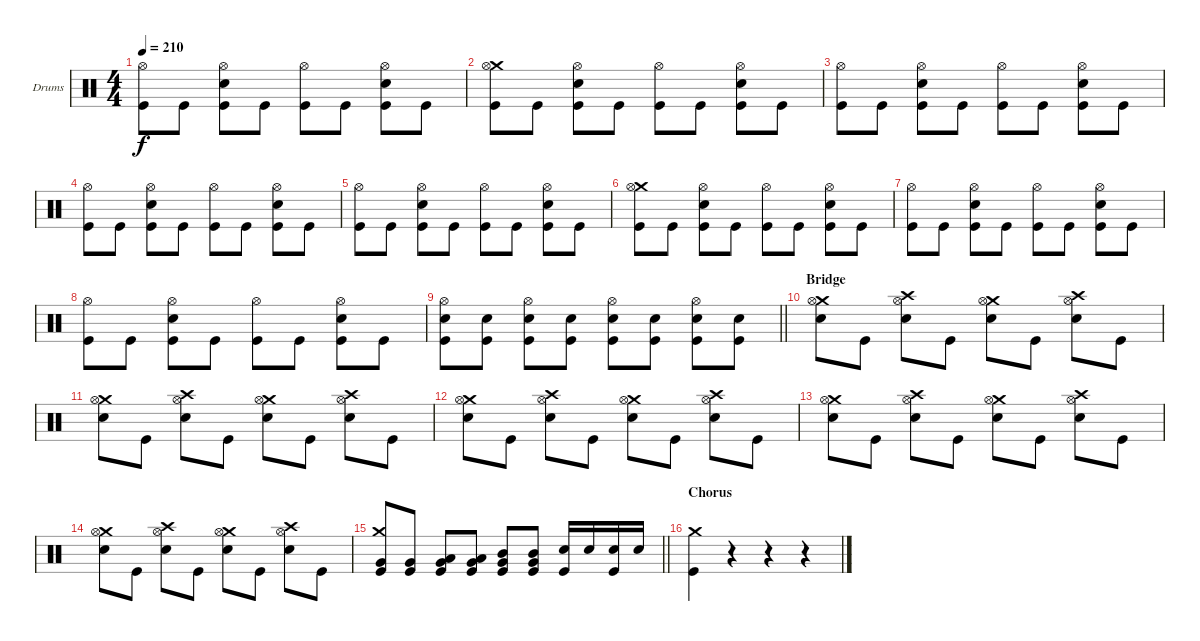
\bracketExtendMode groupsimilarinstruments
\firstSystemTrackNameOrientation horizontal
\otherSystemsTrackNameOrientation horizontal
\track ("Drumkit" "Drums") {instrument percussion}
\staff {score}
\articulation defaults
\ts (4 4)
\tempo 210
\clef neutral
\ks c
("Hi-Hat (open)" "Kick (hit)").8{dy f} "Kick (hit)".8 ("Hi-Hat (open)" "Snare (hit) 2" "Kick (hit)").8 "Kick (hit)".8 ("Hi-Hat (open)" "Kick (hit)").8 "Kick (hit)".8 ("Hi-Hat (open)" "Snare (hit) 2" "Kick (hit)").8 "Kick (hit)".8 |
("Crash medium (hit)" "Hi-Hat (open)" "Kick (hit)").8 "Kick (hit)".8 ("Hi-Hat (open)" "Snare (hit) 2" "Kick (hit)").8 "Kick (hit)".8 ("Hi-Hat (open)" "Kick (hit)").8 "Kick (hit)".8 ("Hi-Hat (open)" "Snare (hit) 2" "Kick (hit)").8 "Kick (hit)".8 |
("Hi-Hat (open)" "Kick (hit)").8 "Kick (hit)".8 ("Hi-Hat (open)" "Snare (hit) 2" "Kick (hit)").8 "Kick (hit)".8 ("Hi-Hat (open)" "Kick (hit)").8 "Kick (hit)".8 ("Hi-Hat (open)" "Snare (hit) 2" "Kick (hit)").8 "Kick (hit)".8 |
("Hi-Hat (open)" "Kick (hit)").8 "Kick (hit)".8 ("Hi-Hat (open)" "Snare (hit) 2" "Kick (hit)").8 "Kick (hit)".8 ("Hi-Hat (open)" "Kick (hit)").8 "Kick (hit)".8 ("Hi-Hat (open)" "Snare (hit) 2" "Kick (hit)").8 "Kick (hit)".8 |
("Hi-Hat (open)" "Kick (hit)").8 "Kick (hit)".8 ("Hi-Hat (open)" "Snare (hit) 2" "Kick (hit)").8 "Kick (hit)".8 ("Hi-Hat (open)" "Kick (hit)").8 "Kick (hit)".8 ("Hi-Hat (open)" "Snare (hit) 2" "Kick (hit)").8 "Kick (hit)".8 |
("Crash medium (hit)" "Hi-Hat (open)" "Kick (hit)").8 "Kick (hit)".8 ("Hi-Hat (open)" "Snare (hit) 2" "Kick (hit)").8 "Kick (hit)".8 ("Hi-Hat (open)" "Kick (hit)").8 "Kick (hit)".8 ("Hi-Hat (open)" "Snare (hit) 2" "Kick (hit)").8 "Kick (hit)".8 |
("Hi-Hat (open)" "Kick (hit)").8 "Kick (hit)".8 ("Hi-Hat (open)" "Snare (hit) 2" "Kick (hit)").8 "Kick (hit)".8 ("Hi-Hat (open)" "Kick (hit)").8 "Kick (hit)".8 ("Hi-Hat (open)" "Snare (hit) 2" "Kick (hit)").8 "Kick (hit)".8 |
("Hi-Hat (open)" "Kick (hit)").8 "Kick (hit)".8 ("Hi-Hat (open)" "Snare (hit) 2" "Kick (hit)").8 "Kick (hit)".8 ("Hi-Hat (open)" "Kick (hit)").8 "Kick (hit)".8 ("Hi-Hat (open)" "Snare (hit) 2" "Kick (hit)").8 "Kick (hit)".8 |
\barLineRight lightlight
("Hi-Hat (open)" "Snare (hit) 2" "Kick (hit)").8 ("Snare (hit) 2" "Kick (hit)").8 ("Hi-Hat (open)" "Snare (hit) 2" "Kick (hit)").8 ("Snare (hit) 2" "Kick (hit)").8 ("Hi-Hat (open)" "Snare (hit) 2" "Kick (hit)").8 ("Snare (hit) 2" "Kick (hit)").8 ("Hi-Hat (open)" "Snare (hit) 2" "Kick (hit)").8 ("Snare (hit) 2" "Kick (hit)").8 |
\section ("" "Bridge")
("Crash medium (hit)" "Hi-Hat (open)" "Snare (hit) 2").8 "Kick (hit)".8 ("Crash high (hit)" "Hi-Hat (open)" "Snare (hit) 2").8 "Kick (hit)".8 ("Crash medium (hit)" "Hi-Hat (open)" "Snare (hit) 2").8 "Kick (hit)".8 ("Crash high (hit)" "Hi-Hat (open)" "Snare (hit) 2").8 "Kick (hit)".8 |
("Crash medium (hit)" "Hi-Hat (open)" "Snare (hit) 2").8 "Kick (hit)".8 ("Crash high (hit)" "Hi-Hat (open)" "Snare (hit) 2").8 "Kick (hit)".8 ("Crash medium (hit)" "Hi-Hat (open)" "Snare (hit) 2").8 "Kick (hit)".8 ("Crash high (hit)" "Hi-Hat (open)" "Snare (hit) 2").8 "Kick (hit)".8 |
("Crash medium (hit)" "Hi-Hat (open)" "Snare (hit) 2").8 "Kick (hit)".8 ("Crash high (hit)" "Hi-Hat (open)" "Snare (hit) 2").8 "Kick (hit)".8 ("Crash medium (hit)" "Hi-Hat (open)" "Snare (hit) 2").8 "Kick (hit)".8 ("Crash high (hit)" "Hi-Hat (open)" "Snare (hit) 2").8 "Kick (hit)".8 |
("Crash medium (hit)" "Hi-Hat (open)" "Snare (hit) 2").8 "Kick (hit)".8 ("Crash high (hit)" "Hi-Hat (open)" "Snare (hit) 2").8 "Kick (hit)".8 ("Crash medium (hit)" "Hi-Hat (open)" "Snare (hit) 2").8 "Kick (hit)".8 ("Crash high (hit)" "Hi-Hat (open)" "Snare (hit) 2").8 "Kick (hit)".8 |
("Crash medium (hit)" "Hi-Hat (open)" "Snare (hit) 2").8 "Kick (hit)".8 ("Crash high (hit)" "Hi-Hat (open)" "Snare (hit) 2").8 "Kick (hit)".8 ("Crash medium (hit)" "Hi-Hat (open)" "Snare (hit) 2").8 "Kick (hit)".8 ("Crash high (hit)" "Hi-Hat (open)" "Snare (hit) 2").8 "Kick (hit)".8 |
\barLineRight lightlight
("Crash medium (hit)" "Very Low Tom (hit)" "Kick (hit)").8 ("Very Low Tom (hit)" "Kick (hit)").8 ("Low Tom (hit)" "Very Low Tom (hit)" "Kick (hit)").8 ("Low Tom (hit)" "Very Low Tom (hit)" "Kick (hit)").8 ("Mid Tom (hit)" "Very Low Tom (hit)" "Kick (hit)").8 ("Mid Tom (hit)" "Very Low Tom (hit)" "Kick (hit)").8 ("Snare (hit) 2" "Kick (hit)").16 "Snare (hit) 2".16 ("Snare (hit) 2" "Kick (hit)").16 "Snare (hit) 2".16 |
\section ("" "Chorus")
("Crash medium (hit)" "Kick (hit)").4 r.4 r.4 r.4
